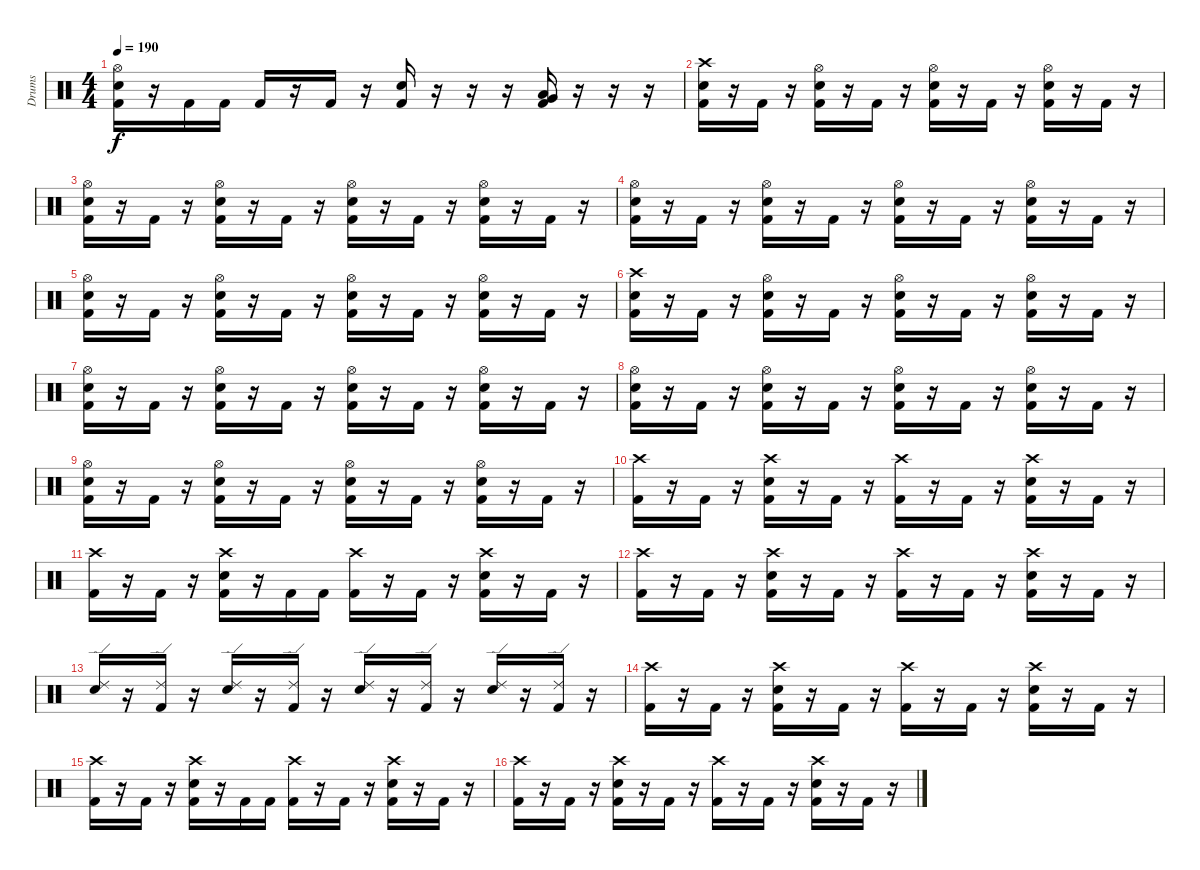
\track ("Drums" "Drums") {instrument percussion}
\staff {score}
\articulation defaults
\ts (4 4)
\tempo 190
\clef neutral
\ks c
("Hi-Hat (open)" "Electric Snare (hit)" "Kick (hit) 2").16{dy f} r.16 "Kick (hit) 2".16 "Kick (hit) 2".16 "Kick (hit) 2".16 r.16 "Kick (hit) 2".16 r.16 ("Electric Snare (hit)" "Kick (hit) 2").16 r.16 r.16 r.16 ("Low Tom (hit)" "Very Low Tom (hit)" "Kick (hit) 2").16 r.16 r.16 r.16 |
("Crash high (hit)" "Electric Snare (hit)" "Kick (hit) 2").16 r.16 "Kick (hit) 2".16 r.16 ("Hi-Hat (open)" "Electric Snare (hit)" "Kick (hit) 2").16 r.16 "Kick (hit) 2".16 r.16 ("Hi-Hat (open)" "Electric Snare (hit)" "Kick (hit) 2").16 r.16 "Kick (hit) 2".16 r.16 ("Hi-Hat (open)" "Electric Snare (hit)" "Kick (hit) 2").16 r.16 "Kick (hit) 2".16 r.16 |
("Hi-Hat (open)" "Electric Snare (hit)" "Kick (hit) 2").16 r.16 "Kick (hit) 2".16 r.16 ("Hi-Hat (open)" "Electric Snare (hit)" "Kick (hit) 2").16 r.16 "Kick (hit) 2".16 r.16 ("Hi-Hat (open)" "Electric Snare (hit)" "Kick (hit) 2").16 r.16 "Kick (hit) 2".16 r.16 ("Hi-Hat (open)" "Electric Snare (hit)" "Kick (hit) 2").16 r.16 "Kick (hit) 2".16 r.16 |
("Hi-Hat (open)" "Electric Snare (hit)" "Kick (hit) 2").16 r.16 "Kick (hit) 2".16 r.16 ("Hi-Hat (open)" "Electric Snare (hit)" "Kick (hit) 2").16 r.16 "Kick (hit) 2".16 r.16 ("Hi-Hat (open)" "Electric Snare (hit)" "Kick (hit) 2").16 r.16 "Kick (hit) 2".16 r.16 ("Hi-Hat (open)" "Electric Snare (hit)" "Kick (hit) 2").16 r.16 "Kick (hit) 2".16 r.16 |
("Hi-Hat (open)" "Electric Snare (hit)" "Kick (hit) 2").16 r.16 "Kick (hit) 2".16 r.16 ("Hi-Hat (open)" "Electric Snare (hit)" "Kick (hit) 2").16 r.16 "Kick (hit) 2".16 r.16 ("Hi-Hat (open)" "Electric Snare (hit)" "Kick (hit) 2").16 r.16 "Kick (hit) 2".16 r.16 ("Hi-Hat (open)" "Electric Snare (hit)" "Kick (hit) 2").16 r.16 "Kick (hit) 2".16 r.16 |
("Crash high (hit)" "Electric Snare (hit)" "Kick (hit) 2").16 r.16 "Kick (hit) 2".16 r.16 ("Hi-Hat (open)" "Electric Snare (hit)" "Kick (hit) 2").16 r.16 "Kick (hit) 2".16 r.16 ("Hi-Hat (open)" "Electric Snare (hit)" "Kick (hit) 2").16 r.16 "Kick (hit) 2".16 r.16 ("Hi-Hat (open)" "Electric Snare (hit)" "Kick (hit) 2").16 r.16 "Kick (hit) 2".16 r.16 |
("Hi-Hat (open)" "Electric Snare (hit)" "Kick (hit) 2").16 r.16 "Kick (hit) 2".16 r.16 ("Hi-Hat (open)" "Electric Snare (hit)" "Kick (hit) 2").16 r.16 "Kick (hit) 2".16 r.16 ("Hi-Hat (open)" "Electric Snare (hit)" "Kick (hit) 2").16 r.16 "Kick (hit) 2".16 r.16 ("Hi-Hat (open)" "Electric Snare (hit)" "Kick (hit) 2").16 r.16 "Kick (hit) 2".16 r.16 |
("Hi-Hat (open)" "Electric Snare (hit)" "Kick (hit) 2").16 r.16 "Kick (hit) 2".16 r.16 ("Hi-Hat (open)" "Electric Snare (hit)" "Kick (hit) 2").16 r.16 "Kick (hit) 2".16 r.16 ("Hi-Hat (open)" "Electric Snare (hit)" "Kick (hit) 2").16 r.16 "Kick (hit) 2".16 r.16 ("Hi-Hat (open)" "Electric Snare (hit)" "Kick (hit) 2").16 r.16 "Kick (hit) 2".16 r.16 |
("Hi-Hat (open)" "Electric Snare (hit)" "Kick (hit) 2").16 r.16 "Kick (hit) 2".16 r.16 ("Hi-Hat (open)" "Electric Snare (hit)" "Kick (hit) 2").16 r.16 "Kick (hit) 2".16 r.16 ("Hi-Hat (open)" "Electric Snare (hit)" "Kick (hit) 2").16 r.16 "Kick (hit) 2".16 r.16 ("Hi-Hat (open)" "Electric Snare (hit)" "Kick (hit) 2").16 r.16 "Kick (hit) 2".16 r.16 |
("Crash high (hit)" "Kick (hit) 2").16 r.16 "Kick (hit) 2".16 r.16 ("Crash high (hit)" "Electric Snare (hit)" "Kick (hit) 2").16 r.16 "Kick (hit) 2".16 r.16 ("Crash high (hit)" "Kick (hit) 2").16 r.16 "Kick (hit) 2".16 r.16 ("Crash high (hit)" "Electric Snare (hit)" "Kick (hit) 2").16 r.16 "Kick (hit) 2".16 r.16 |
("Crash high (hit)" "Kick (hit) 2").16 r.16 "Kick (hit) 2".16 r.16 ("Crash high (hit)" "Electric Snare (hit)" "Kick (hit) 2").16 r.16 "Kick (hit) 2".16 "Kick (hit) 2".16 ("Crash high (hit)" "Kick (hit) 2").16 r.16 "Kick (hit) 2".16 r.16 ("Crash high (hit)" "Electric Snare (hit)" "Kick (hit) 2").16 r.16 "Kick (hit) 2".16 r.16 |
("Crash high (hit)" "Kick (hit) 2").16 r.16 "Kick (hit) 2".16 r.16 ("Crash high (hit)" "Electric Snare (hit)" "Kick (hit) 2").16 r.16 "Kick (hit) 2".16 r.16 ("Crash high (hit)" "Kick (hit) 2").16 r.16 "Kick (hit) 2".16 r.16 ("Crash high (hit)" "Electric Snare (hit)" "Kick (hit) 2").16 r.16 "Kick (hit) 2".16 r.16 |
("Ride (edge) 2" "Electric Snare (hit)").16 r.16 ("Ride (edge) 2" "Kick (hit) 2").16 r.16 ("Ride (edge) 2" "Electric Snare (hit)").16 r.16 ("Ride (edge) 2" "Kick (hit) 2").16 r.16 ("Ride (edge) 2" "Electric Snare (hit)").16 r.16 ("Ride (edge) 2" "Kick (hit) 2").16 r.16 ("Ride (edge) 2" "Electric Snare (hit)").16 r.16 ("Ride (edge) 2" "Kick (hit) 2").16 r.16 |
("Crash high (hit)" "Kick (hit) 2").16 r.16 "Kick (hit) 2".16 r.16 ("Crash high (hit)" "Electric Snare (hit)" "Kick (hit) 2").16 r.16 "Kick (hit) 2".16 r.16 ("Crash high (hit)" "Kick (hit) 2").16 r.16 "Kick (hit) 2".16 r.16 ("Crash high (hit)" "Electric Snare (hit)" "Kick (hit) 2").16 r.16 "Kick (hit) 2".16 r.16 |
("Crash high (hit)" "Kick (hit) 2").16 r.16 "Kick (hit) 2".16 r.16 ("Crash high (hit)" "Electric Snare (hit)" "Kick (hit) 2").16 r.16 "Kick (hit) 2".16 "Kick (hit) 2".16 ("Crash high (hit)" "Kick (hit) 2").16 r.16 "Kick (hit) 2".16 r.16 ("Crash high (hit)" "Electric Snare (hit)" "Kick (hit) 2").16 r.16 "Kick (hit) 2".16 r.16 |
("Crash high (hit)" "Kick (hit) 2").16 r.16 "Kick (hit) 2".16 r.16 ("Crash high (hit)" "Electric Snare (hit)" "Kick (hit) 2").16 r.16 "Kick (hit) 2".16 r.16 ("Crash high (hit)" "Kick (hit) 2").16 r.16 "Kick (hit) 2".16 r.16 ("Crash high (hit)" "Electric Snare (hit)" "Kick (hit) 2").16 r.16 "Kick (hit) 2".16 r.16
